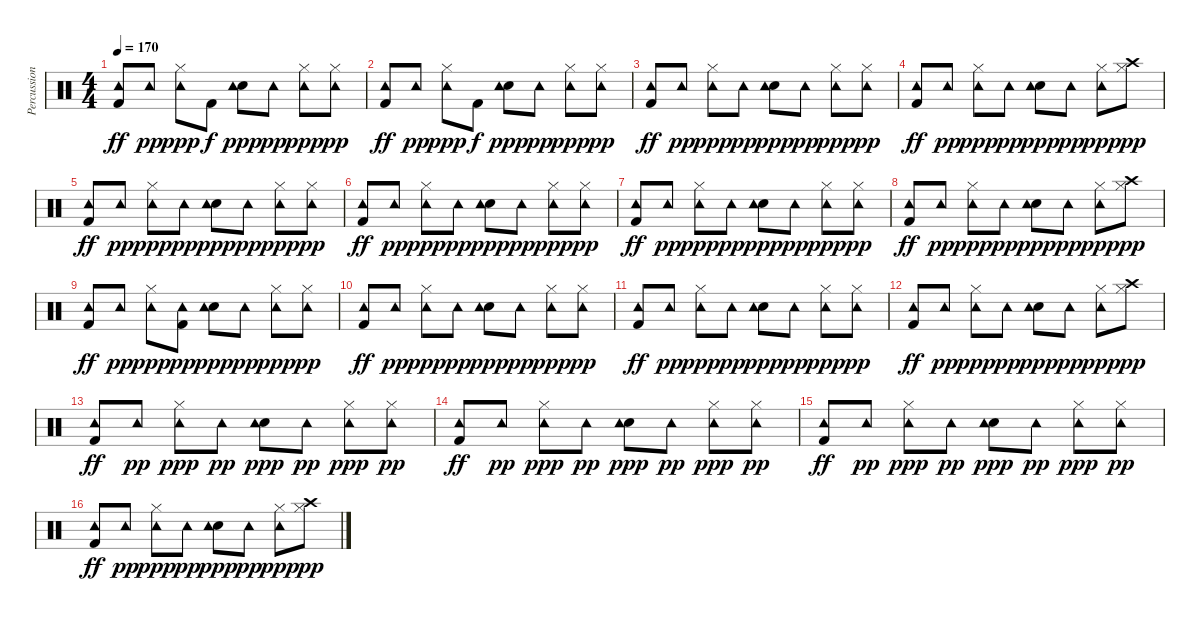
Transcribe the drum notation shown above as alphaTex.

\track ("Percussions" "Percussion") {instrument percussion}
\staff {score}
\articulation defaults
\ts (4 4)
\tempo 170
\clef neutral
\ks c
("Tambourine (hit)" "Kick (hit) 2").8{dy ff} "Tambourine (hit)".8{dy pp} ("Hi-Hat (closed)" "Tambourine (hit)").8{dy ppp} "Kick (hit) 2".8{dy f} ("Electric Snare (hit)" "Tambourine (hit)").8{dy ppp} "Tambourine (hit)".8{dy pp} ("Hi-Hat (closed)" "Tambourine (hit)").8{dy ppp} ("Hi-Hat (closed)" "Tambourine (hit)").8{dy pp} |
("Tambourine (hit)" "Kick (hit) 2").8{dy ff} "Tambourine (hit)".8{dy pp} ("Hi-Hat (closed)" "Tambourine (hit)").8{dy ppp} "Kick (hit) 2".8{dy f} ("Electric Snare (hit)" "Tambourine (hit)").8{dy ppp} "Tambourine (hit)".8{dy pp} ("Hi-Hat (closed)" "Tambourine (hit)").8{dy ppp} ("Hi-Hat (closed)" "Tambourine (hit)").8{dy pp} |
("Tambourine (hit)" "Kick (hit) 2").8{dy ff} "Tambourine (hit)".8{dy pp} ("Hi-Hat (closed)" "Tambourine (hit)").8{dy ppp} "Tambourine (hit)".8{dy pp} ("Electric Snare (hit)" "Tambourine (hit)").8{dy ppp} "Tambourine (hit)".8{dy pp} ("Hi-Hat (closed)" "Tambourine (hit)").8{dy ppp} ("Hi-Hat (closed)" "Tambourine (hit)").8{dy pp} |
("Tambourine (hit)" "Kick (hit) 2").8{dy ff} "Tambourine (hit)".8{dy pp} ("Hi-Hat (closed)" "Tambourine (hit)").8{dy ppp} "Tambourine (hit)".8{dy pp} ("Electric Snare (hit)" "Tambourine (hit)").8{dy ppp} "Tambourine (hit)".8{dy pp} ("Hi-Hat (closed)" "Tambourine (hit)").8{dy ppp} ("Hi-Hat (closed)" "Crash high (hit)").8{dy pp} |
("Tambourine (hit)" "Kick (hit) 2").8{dy ff} "Tambourine (hit)".8{dy pp} ("Hi-Hat (closed)" "Tambourine (hit)").8{dy ppp} "Tambourine (hit)".8{dy pp} ("Electric Snare (hit)" "Tambourine (hit)").8{dy ppp} "Tambourine (hit)".8{dy pp} ("Hi-Hat (closed)" "Tambourine (hit)").8{dy ppp} ("Hi-Hat (closed)" "Tambourine (hit)").8{dy pp} |
("Tambourine (hit)" "Kick (hit) 2").8{dy ff} "Tambourine (hit)".8{dy pp} ("Hi-Hat (closed)" "Tambourine (hit)").8{dy ppp} "Tambourine (hit)".8{dy pp} ("Electric Snare (hit)" "Tambourine (hit)").8{dy ppp} "Tambourine (hit)".8{dy pp} ("Hi-Hat (closed)" "Tambourine (hit)").8{dy ppp} ("Hi-Hat (closed)" "Tambourine (hit)").8{dy pp} |
("Tambourine (hit)" "Kick (hit) 2").8{dy ff} "Tambourine (hit)".8{dy pp} ("Hi-Hat (closed)" "Tambourine (hit)").8{dy ppp} "Tambourine (hit)".8{dy pp} ("Electric Snare (hit)" "Tambourine (hit)").8{dy ppp} "Tambourine (hit)".8{dy pp} ("Hi-Hat (closed)" "Tambourine (hit)").8{dy ppp} ("Hi-Hat (closed)" "Tambourine (hit)").8{dy pp} |
("Tambourine (hit)" "Kick (hit) 2").8{dy ff} "Tambourine (hit)".8{dy pp} ("Hi-Hat (closed)" "Tambourine (hit)").8{dy ppp} "Tambourine (hit)".8{dy pp} ("Electric Snare (hit)" "Tambourine (hit)").8{dy ppp} "Tambourine (hit)".8{dy pp} ("Hi-Hat (closed)" "Tambourine (hit)").8{dy ppp} ("Hi-Hat (closed)" "Crash high (hit)").8{dy pp} |
("Tambourine (hit)" "Kick (hit) 2").8{dy ff} "Tambourine (hit)".8{dy pp} ("Hi-Hat (closed)" "Tambourine (hit)").8{dy ppp} ("Kick (hit) 2" "Tambourine (hit)").8{dy pp} ("Electric Snare (hit)" "Tambourine (hit)").8{dy ppp} "Tambourine (hit)".8{dy pp} ("Hi-Hat (closed)" "Tambourine (hit)").8{dy ppp} ("Hi-Hat (closed)" "Tambourine (hit)").8{dy pp} |
("Tambourine (hit)" "Kick (hit) 2").8{dy ff} "Tambourine (hit)".8{dy pp} ("Hi-Hat (closed)" "Tambourine (hit)").8{dy ppp} "Tambourine (hit)".8{dy pp} ("Electric Snare (hit)" "Tambourine (hit)").8{dy ppp} "Tambourine (hit)".8{dy pp} ("Hi-Hat (closed)" "Tambourine (hit)").8{dy ppp} ("Hi-Hat (closed)" "Tambourine (hit)").8{dy pp} |
("Tambourine (hit)" "Kick (hit) 2").8{dy ff} "Tambourine (hit)".8{dy pp} ("Hi-Hat (closed)" "Tambourine (hit)").8{dy ppp} "Tambourine (hit)".8{dy pp} ("Electric Snare (hit)" "Tambourine (hit)").8{dy ppp} "Tambourine (hit)".8{dy pp} ("Hi-Hat (closed)" "Tambourine (hit)").8{dy ppp} ("Hi-Hat (closed)" "Tambourine (hit)").8{dy pp} |
("Tambourine (hit)" "Kick (hit) 2").8{dy ff} "Tambourine (hit)".8{dy pp} ("Hi-Hat (closed)" "Tambourine (hit)").8{dy ppp} "Tambourine (hit)".8{dy pp} ("Electric Snare (hit)" "Tambourine (hit)").8{dy ppp} "Tambourine (hit)".8{dy pp} ("Hi-Hat (closed)" "Tambourine (hit)").8{dy ppp} ("Hi-Hat (closed)" "Crash high (hit)").8{dy pp} |
("Tambourine (hit)" "Kick (hit) 2").8{dy ff} "Tambourine (hit)".8{dy pp} ("Hi-Hat (closed)" "Tambourine (hit)").8{dy ppp} "Tambourine (hit)".8{dy pp} ("Electric Snare (hit)" "Tambourine (hit)").8{dy ppp} "Tambourine (hit)".8{dy pp} ("Hi-Hat (closed)" "Tambourine (hit)").8{dy ppp} ("Hi-Hat (closed)" "Tambourine (hit)").8{dy pp} |
("Tambourine (hit)" "Kick (hit) 2").8{dy ff} "Tambourine (hit)".8{dy pp} ("Hi-Hat (closed)" "Tambourine (hit)").8{dy ppp} "Tambourine (hit)".8{dy pp} ("Electric Snare (hit)" "Tambourine (hit)").8{dy ppp} "Tambourine (hit)".8{dy pp} ("Hi-Hat (closed)" "Tambourine (hit)").8{dy ppp} ("Hi-Hat (closed)" "Tambourine (hit)").8{dy pp} |
("Tambourine (hit)" "Kick (hit) 2").8{dy ff} "Tambourine (hit)".8{dy pp} ("Hi-Hat (closed)" "Tambourine (hit)").8{dy ppp} "Tambourine (hit)".8{dy pp} ("Electric Snare (hit)" "Tambourine (hit)").8{dy ppp} "Tambourine (hit)".8{dy pp} ("Hi-Hat (closed)" "Tambourine (hit)").8{dy ppp} ("Hi-Hat (closed)" "Tambourine (hit)").8{dy pp} |
("Tambourine (hit)" "Kick (hit) 2").8{dy ff} "Tambourine (hit)".8{dy pp} ("Hi-Hat (closed)" "Tambourine (hit)").8{dy ppp} "Tambourine (hit)".8{dy pp} ("Electric Snare (hit)" "Tambourine (hit)").8{dy ppp} "Tambourine (hit)".8{dy pp} ("Hi-Hat (closed)" "Tambourine (hit)").8{dy ppp} ("Hi-Hat (closed)" "Crash high (hit)").8{dy pp}
